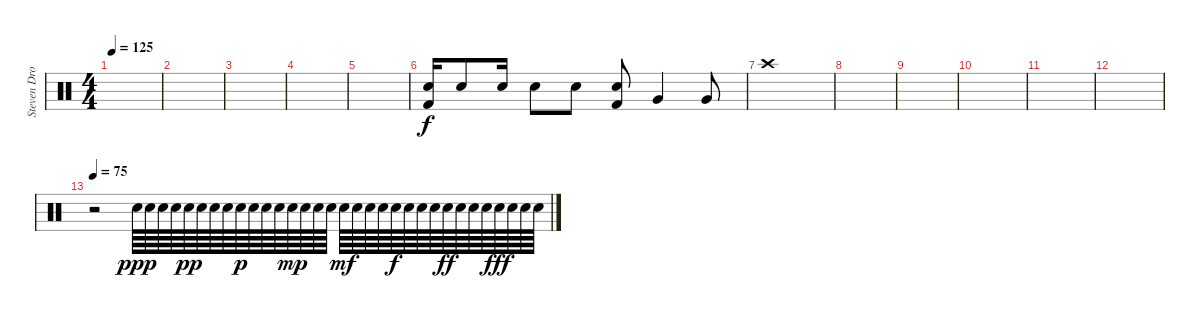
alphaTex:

\track ("Steven Drozd (Drums Overdub)" "Steven Dro") {instrument percussion}
\staff {score}
\articulation defaults
\ts (4 4)
\tempo 125
\clef neutral
\ks c
|
|
|
|
|
("Electric Snare (hit)" "Kick (hit) 2").16 "Electric Snare (hit)".8 "Electric Snare (hit)".16 "Electric Snare (hit)".8 "Electric Snare (hit)".8 ("Electric Snare (hit)"{tr (40 64)} "Kick (hit) 2").8 "Very Low Tom (hit)"{tr (45 32)}.4 "Very Low Tom (hit)"{tr (41 32)}.8 |
"Crash high (hit)".1 |
|
|
|
|
|
\tempo 75
r.2 "Electric Snare (hit)".64{dy ppp} "Electric Snare (hit)".64 "Electric Snare (hit)".64 "Electric Snare (hit)".64 "Electric Snare (hit)".64{dy pp} "Electric Snare (hit)".64 "Electric Snare (hit)".64 "Electric Snare (hit)".64 "Electric Snare (hit)".64{dy p} "Electric Snare (hit)".64 "Electric Snare (hit)".64 "Electric Snare (hit)".64 "Electric Snare (hit)".64{dy mp} "Electric Snare (hit)".64 "Electric Snare (hit)".64 "Electric Snare (hit)".64 "Electric Snare (hit)".64{dy mf} "Electric Snare (hit)".64 "Electric Snare (hit)".64 "Electric Snare (hit)".64 "Electric Snare (hit)".64{dy f} "Electric Snare (hit)".64 "Electric Snare (hit)".64 "Electric Snare (hit)".64 "Electric Snare (hit)".64{dy ff} "Electric Snare (hit)".64 "Electric Snare (hit)".64 "Electric Snare (hit)".64 "Electric Snare (hit)".64{dy fff} "Electric Snare (hit)".64 "Electric Snare (hit)".64 "Electric Snare (hit)".64
